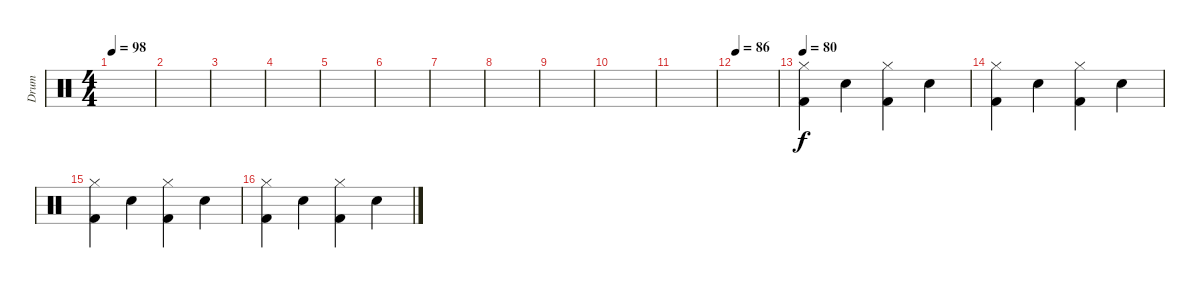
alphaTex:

\track ("Drum" "Drum") {instrument percussion}
\staff {score}
\articulation defaults
\ts (4 4)
\tempo 98
\clef neutral
\ks c
|
|
|
|
|
|
|
|
|
|
|
\tempo 86
|
\tempo 80
("Hi-Hat (closed)" "Kick (hit) 2").4 "Electric Snare (hit)".4 ("Hi-Hat (closed)" "Kick (hit) 2").4 "Electric Snare (hit)".4 |
("Hi-Hat (closed)" "Kick (hit) 2").4 "Electric Snare (hit)".4 ("Hi-Hat (closed)" "Kick (hit) 2").4 "Electric Snare (hit)".4 |
("Hi-Hat (closed)" "Kick (hit) 2").4 "Electric Snare (hit)".4 ("Hi-Hat (closed)" "Kick (hit) 2").4 "Electric Snare (hit)".4 |
("Hi-Hat (closed)" "Kick (hit) 2").4 "Electric Snare (hit)".4 ("Hi-Hat (closed)" "Kick (hit) 2").4 "Electric Snare (hit)".4
